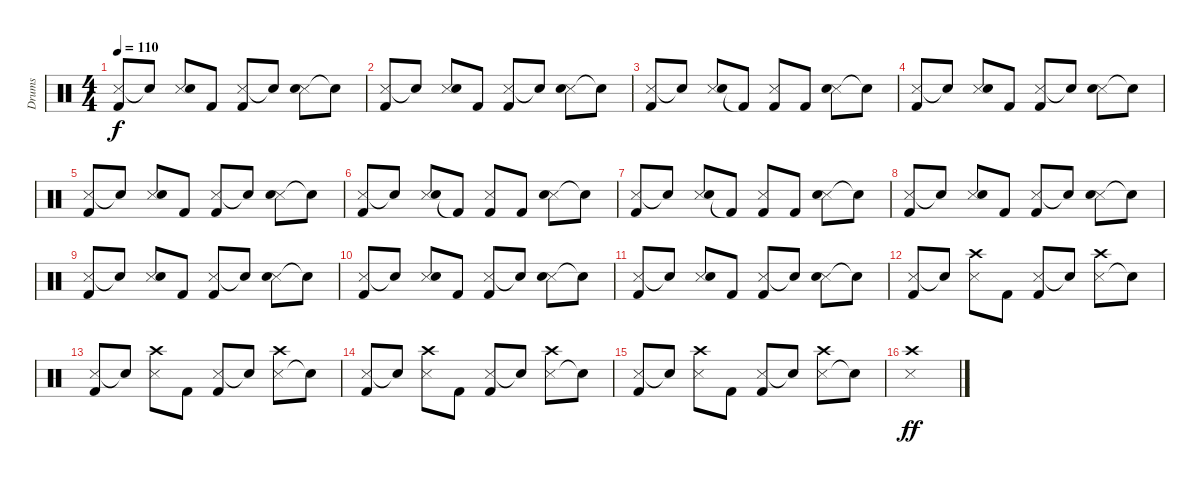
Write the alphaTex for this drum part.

\track ("Drums" "Drums") {instrument percussion}
\staff {score}
\articulation defaults
\ts (4 4)
\tempo 110
\clef neutral
\ks c
("Snare (side stick) 3" "Kick (hit) 2").8{dy f} "Electric Snare (hit)"{t}.8 ("Snare (side stick) 3" "Snare (hit) 2").8 "Kick (hit) 2".8 ("Snare (side stick) 3" "Kick (hit) 2").8 "Electric Snare (hit)"{t}.8 ("Snare (side stick) 3" "Snare (hit) 2").8 "Electric Snare (hit)"{t}.8 |
("Snare (side stick) 3" "Kick (hit) 2").8 "Electric Snare (hit)"{t}.8 ("Snare (side stick) 3" "Snare (hit) 2").8 "Kick (hit) 2".8 ("Snare (side stick) 3" "Kick (hit) 2").8 "Electric Snare (hit)"{t}.8 ("Snare (side stick) 3" "Snare (hit) 2").8 "Electric Snare (hit)"{t}.8 |
("Snare (side stick) 3" "Kick (hit) 2").8 "Electric Snare (hit)"{t}.8 ("Snare (side stick) 3" "Snare (hit) 2").8 "Kick (hit) 2"{t}.8 ("Snare (side stick) 3" "Kick (hit) 2").8 "Kick (hit) 2".8 ("Snare (side stick) 3" "Snare (hit) 2").8 "Electric Snare (hit)"{t}.8 |
("Snare (side stick) 3" "Kick (hit) 2").8 "Electric Snare (hit)"{t}.8 ("Snare (side stick) 3" "Snare (hit) 2").8 "Kick (hit) 2".8 ("Snare (side stick) 3" "Kick (hit) 2").8 "Electric Snare (hit)"{t}.8 ("Snare (side stick) 3" "Snare (hit) 2").8 "Electric Snare (hit)"{t}.8 |
("Snare (side stick) 3" "Kick (hit) 2").8 "Electric Snare (hit)"{t}.8 ("Snare (side stick) 3" "Snare (hit) 2").8 "Kick (hit) 2".8 ("Snare (side stick) 3" "Kick (hit) 2").8 "Electric Snare (hit)"{t}.8 ("Snare (side stick) 3" "Snare (hit) 2").8 "Electric Snare (hit)"{t}.8 |
("Snare (side stick) 3" "Kick (hit) 2").8 "Electric Snare (hit)"{t}.8 ("Snare (side stick) 3" "Snare (hit) 2").8 "Kick (hit) 2"{t}.8 ("Snare (side stick) 3" "Kick (hit) 2").8 "Kick (hit) 2".8 ("Snare (side stick) 3" "Snare (hit) 2").8 "Electric Snare (hit)"{t}.8 |
("Snare (side stick) 3" "Kick (hit) 2").8 "Electric Snare (hit)"{t}.8 ("Snare (side stick) 3" "Snare (hit) 2").8 "Kick (hit) 2"{t}.8 ("Snare (side stick) 3" "Kick (hit) 2").8 "Kick (hit) 2".8 ("Snare (side stick) 3" "Snare (hit) 2").8 "Electric Snare (hit)"{t}.8 |
("Snare (side stick) 3" "Kick (hit) 2").8 "Electric Snare (hit)"{t}.8 ("Snare (side stick) 3" "Snare (hit) 2").8 "Kick (hit) 2".8 ("Snare (side stick) 3" "Kick (hit) 2").8 "Electric Snare (hit)"{t}.8 ("Snare (side stick) 3" "Snare (hit) 2").8 "Electric Snare (hit)"{t}.8 |
("Snare (side stick) 3" "Kick (hit) 2").8 "Electric Snare (hit)"{t}.8 ("Snare (side stick) 3" "Snare (hit) 2").8 "Kick (hit) 2".8 ("Snare (side stick) 3" "Kick (hit) 2").8 "Electric Snare (hit)"{t}.8 ("Snare (side stick) 3" "Snare (hit) 2").8 "Electric Snare (hit)"{t}.8 |
("Snare (side stick) 3" "Kick (hit) 2").8 "Electric Snare (hit)"{t}.8 ("Snare (side stick) 3" "Snare (hit) 2").8 "Kick (hit) 2".8 ("Snare (side stick) 3" "Kick (hit) 2").8 "Electric Snare (hit)"{t}.8 ("Snare (side stick) 3" "Snare (hit) 2").8 "Electric Snare (hit)"{t}.8 |
("Snare (side stick) 3" "Kick (hit) 2").8 "Electric Snare (hit)"{t}.8 ("Snare (side stick) 3" "Snare (hit) 2").8 "Kick (hit) 2".8 ("Snare (side stick) 3" "Kick (hit) 2").8 "Electric Snare (hit)"{t}.8 ("Snare (side stick) 3" "Snare (hit) 2").8 "Electric Snare (hit)"{t}.8 |
("Snare (side stick) 3" "Kick (hit) 2").8 "Electric Snare (hit)"{t}.8 ("Snare (side stick) 3" "Crash high (hit)").8 "Kick (hit) 2".8 ("Snare (side stick) 3" "Kick (hit) 2").8 "Electric Snare (hit)"{t}.8 ("Snare (side stick) 3" "Crash high (hit)").8 "Electric Snare (hit)"{t}.8 |
("Snare (side stick) 3" "Kick (hit) 2").8 "Electric Snare (hit)"{t}.8 ("Snare (side stick) 3" "Crash high (hit)").8 "Kick (hit) 2".8 ("Snare (side stick) 3" "Kick (hit) 2").8 "Electric Snare (hit)"{t}.8 ("Snare (side stick) 3" "Crash high (hit)").8 "Electric Snare (hit)"{t}.8 |
("Snare (side stick) 3" "Kick (hit) 2").8 "Electric Snare (hit)"{t}.8 ("Snare (side stick) 3" "Crash high (hit)").8 "Kick (hit) 2".8 ("Snare (side stick) 3" "Kick (hit) 2").8 "Electric Snare (hit)"{t}.8 ("Snare (side stick) 3" "Crash high (hit)").8 "Electric Snare (hit)"{t}.8 |
("Snare (side stick) 3" "Kick (hit) 2").8 "Electric Snare (hit)"{t}.8 ("Snare (side stick) 3" "Crash high (hit)").8 "Kick (hit) 2".8 ("Snare (side stick) 3" "Kick (hit) 2").8 "Electric Snare (hit)"{t}.8 ("Snare (side stick) 3" "Crash high (hit)").8 "Electric Snare (hit)"{t}.8 |
("Snare (side stick) 3" "Crash high (hit)").1{dy ff}
